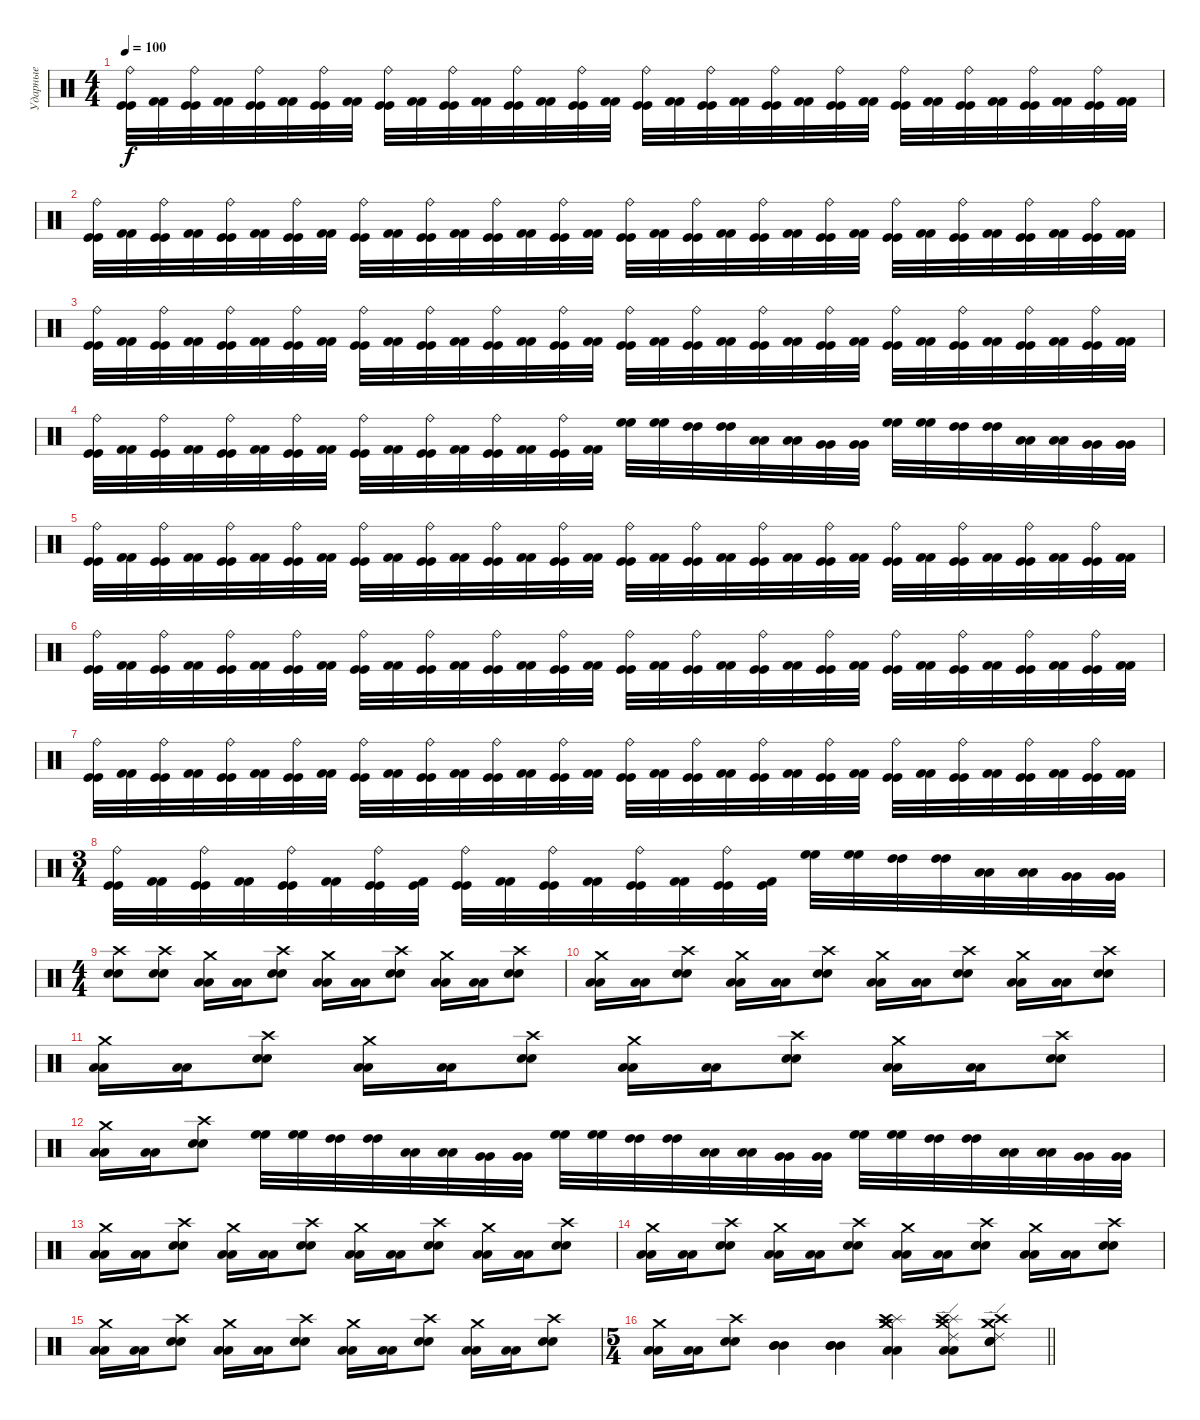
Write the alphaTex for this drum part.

\track ("Ударные" "Ударные") {instrument percussion}
\staff {score}
\articulation defaults
\ts (4 4)
\tempo 100
\clef neutral
\ks c
("Ride (bell)" "Kick (hit)" "Kick (hit)").32{dy f} ("Kick (hit) 2" "Kick (hit) 2").32 ("Ride (bell)" "Kick (hit)" "Kick (hit)").32 ("Kick (hit) 2" "Kick (hit) 2").32 ("Ride (bell)" "Kick (hit)" "Kick (hit)").32 ("Kick (hit) 2" "Kick (hit) 2").32 ("Ride (bell)" "Kick (hit)" "Kick (hit)").32 ("Kick (hit) 2" "Kick (hit) 2").32 ("Ride (bell)" "Kick (hit)" "Kick (hit)").32 ("Kick (hit) 2" "Kick (hit) 2").32 ("Ride (bell)" "Kick (hit)" "Kick (hit)").32 ("Kick (hit) 2" "Kick (hit) 2").32 ("Ride (bell)" "Kick (hit)" "Kick (hit)").32 ("Kick (hit) 2" "Kick (hit) 2").32 ("Ride (bell)" "Kick (hit)" "Kick (hit)").32 ("Kick (hit) 2" "Kick (hit) 2").32 ("Ride (bell)" "Kick (hit)" "Kick (hit)").32 ("Kick (hit) 2" "Kick (hit) 2").32 ("Ride (bell)" "Kick (hit)" "Kick (hit)").32 ("Kick (hit) 2" "Kick (hit) 2").32 ("Ride (bell)" "Kick (hit)" "Kick (hit)").32 ("Kick (hit) 2" "Kick (hit) 2").32 ("Ride (bell)" "Kick (hit)" "Kick (hit)").32 ("Kick (hit) 2" "Kick (hit) 2").32 ("Ride (bell)" "Kick (hit)" "Kick (hit)").32 ("Kick (hit) 2" "Kick (hit) 2").32 ("Ride (bell)" "Kick (hit)" "Kick (hit)").32 ("Kick (hit) 2" "Kick (hit) 2").32 ("Ride (bell)" "Kick (hit)" "Kick (hit)").32 ("Kick (hit) 2" "Kick (hit) 2").32 ("Ride (bell)" "Kick (hit)" "Kick (hit)").32 ("Kick (hit) 2" "Kick (hit) 2").32 |
("Ride (bell)" "Kick (hit)" "Kick (hit)").32 ("Kick (hit) 2" "Kick (hit) 2").32 ("Ride (bell)" "Kick (hit)" "Kick (hit)").32 ("Kick (hit) 2" "Kick (hit) 2").32 ("Ride (bell)" "Kick (hit)" "Kick (hit)").32 ("Kick (hit) 2" "Kick (hit) 2").32 ("Ride (bell)" "Kick (hit)" "Kick (hit)").32 ("Kick (hit) 2" "Kick (hit) 2").32 ("Ride (bell)" "Kick (hit)" "Kick (hit)").32 ("Kick (hit) 2" "Kick (hit) 2").32 ("Ride (bell)" "Kick (hit)" "Kick (hit)").32 ("Kick (hit) 2" "Kick (hit) 2").32 ("Ride (bell)" "Kick (hit)" "Kick (hit)").32 ("Kick (hit) 2" "Kick (hit) 2").32 ("Ride (bell)" "Kick (hit)" "Kick (hit)").32 ("Kick (hit) 2" "Kick (hit) 2").32 ("Ride (bell)" "Kick (hit)" "Kick (hit)").32 ("Kick (hit) 2" "Kick (hit) 2").32 ("Ride (bell)" "Kick (hit)" "Kick (hit)").32 ("Kick (hit) 2" "Kick (hit) 2").32 ("Ride (bell)" "Kick (hit)" "Kick (hit)").32 ("Kick (hit) 2" "Kick (hit) 2").32 ("Ride (bell)" "Kick (hit)" "Kick (hit)").32 ("Kick (hit) 2" "Kick (hit) 2").32 ("Ride (bell)" "Kick (hit)" "Kick (hit)").32 ("Kick (hit) 2" "Kick (hit) 2").32 ("Ride (bell)" "Kick (hit)" "Kick (hit)").32 ("Kick (hit) 2" "Kick (hit) 2").32 ("Ride (bell)" "Kick (hit)" "Kick (hit)").32 ("Kick (hit) 2" "Kick (hit) 2").32 ("Ride (bell)" "Kick (hit)" "Kick (hit)").32 ("Kick (hit) 2" "Kick (hit) 2").32 |
("Ride (bell)" "Kick (hit)" "Kick (hit)").32 ("Kick (hit) 2" "Kick (hit) 2").32 ("Ride (bell)" "Kick (hit)" "Kick (hit)").32 ("Kick (hit) 2" "Kick (hit) 2").32 ("Ride (bell)" "Kick (hit)" "Kick (hit)").32 ("Kick (hit) 2" "Kick (hit) 2").32 ("Ride (bell)" "Kick (hit)" "Kick (hit)").32 ("Kick (hit) 2" "Kick (hit) 2").32 ("Ride (bell)" "Kick (hit)" "Kick (hit)").32 ("Kick (hit) 2" "Kick (hit) 2").32 ("Ride (bell)" "Kick (hit)" "Kick (hit)").32 ("Kick (hit) 2" "Kick (hit) 2").32 ("Ride (bell)" "Kick (hit)" "Kick (hit)").32 ("Kick (hit) 2" "Kick (hit) 2").32 ("Ride (bell)" "Kick (hit)" "Kick (hit)").32 ("Kick (hit) 2" "Kick (hit) 2").32 ("Ride (bell)" "Kick (hit)" "Kick (hit)").32 ("Kick (hit) 2" "Kick (hit) 2").32 ("Ride (bell)" "Kick (hit)" "Kick (hit)").32 ("Kick (hit) 2" "Kick (hit) 2").32 ("Ride (bell)" "Kick (hit)" "Kick (hit)").32 ("Kick (hit) 2" "Kick (hit) 2").32 ("Ride (bell)" "Kick (hit)" "Kick (hit)").32 ("Kick (hit) 2" "Kick (hit) 2").32 ("Ride (bell)" "Kick (hit)" "Kick (hit)").32 ("Kick (hit) 2" "Kick (hit) 2").32 ("Ride (bell)" "Kick (hit)" "Kick (hit)").32 ("Kick (hit) 2" "Kick (hit) 2").32 ("Ride (bell)" "Kick (hit)" "Kick (hit)").32 ("Kick (hit) 2" "Kick (hit) 2").32 ("Ride (bell)" "Kick (hit)" "Kick (hit)").32 ("Kick (hit) 2" "Kick (hit) 2").32 |
("Ride (bell)" "Kick (hit)" "Kick (hit)").32 ("Kick (hit) 2" "Kick (hit) 2").32 ("Ride (bell)" "Kick (hit)" "Kick (hit)").32 ("Kick (hit) 2" "Kick (hit) 2").32 ("Ride (bell)" "Kick (hit)" "Kick (hit)").32 ("Kick (hit) 2" "Kick (hit) 2").32 ("Ride (bell)" "Kick (hit)" "Kick (hit)").32 ("Kick (hit) 2" "Kick (hit) 2").32 ("Ride (bell)" "Kick (hit)" "Kick (hit)").32 ("Kick (hit) 2" "Kick (hit) 2").32 ("Ride (bell)" "Kick (hit)" "Kick (hit)").32 ("Kick (hit) 2" "Kick (hit) 2").32 ("Ride (bell)" "Kick (hit)" "Kick (hit)").32 ("Kick (hit) 2" "Kick (hit) 2").32 ("Ride (bell)" "Kick (hit)" "Kick (hit)").32 ("Kick (hit) 2" "Kick (hit) 2").32 ("High Floor Tom (hit)" "High Floor Tom (hit)").32 ("High Floor Tom (hit)" "High Floor Tom (hit)").32 ("High Tom (hit)" "High Tom (hit)").32 ("High Tom (hit)" "High Tom (hit)").32 ("Low Tom (hit)" "Low Tom (hit)").32 ("Low Tom (hit)" "Low Tom (hit)").32 ("Very Low Tom (hit)" "Very Low Tom (hit)").32 ("Very Low Tom (hit)" "Very Low Tom (hit)").32 ("High Floor Tom (hit)" "High Floor Tom (hit)").32 ("High Floor Tom (hit)" "High Floor Tom (hit)").32 ("High Tom (hit)" "High Tom (hit)").32 ("High Tom (hit)" "High Tom (hit)").32 ("Low Tom (hit)" "Low Tom (hit)").32 ("Low Tom (hit)" "Low Tom (hit)").32 ("Very Low Tom (hit)" "Very Low Tom (hit)").32 ("Very Low Tom (hit)" "Very Low Tom (hit)").32 |
("Ride (bell)" "Kick (hit)" "Kick (hit)").32 ("Kick (hit) 2" "Kick (hit) 2").32 ("Ride (bell)" "Kick (hit)" "Kick (hit)").32 ("Kick (hit) 2" "Kick (hit) 2").32 ("Ride (bell)" "Kick (hit)" "Kick (hit)").32 ("Kick (hit) 2" "Kick (hit) 2").32 ("Ride (bell)" "Kick (hit)" "Kick (hit)").32 ("Kick (hit) 2" "Kick (hit) 2").32 ("Ride (bell)" "Kick (hit)" "Kick (hit)").32 ("Kick (hit) 2" "Kick (hit) 2").32 ("Ride (bell)" "Kick (hit)" "Kick (hit)").32 ("Kick (hit) 2" "Kick (hit) 2").32 ("Ride (bell)" "Kick (hit)" "Kick (hit)").32 ("Kick (hit) 2" "Kick (hit) 2").32 ("Ride (bell)" "Kick (hit)" "Kick (hit)").32 ("Kick (hit) 2" "Kick (hit) 2").32 ("Ride (bell)" "Kick (hit)" "Kick (hit)").32 ("Kick (hit) 2" "Kick (hit) 2").32 ("Ride (bell)" "Kick (hit)" "Kick (hit)").32 ("Kick (hit) 2" "Kick (hit) 2").32 ("Ride (bell)" "Kick (hit)" "Kick (hit)").32 ("Kick (hit) 2" "Kick (hit) 2").32 ("Ride (bell)" "Kick (hit)" "Kick (hit)").32 ("Kick (hit) 2" "Kick (hit) 2").32 ("Ride (bell)" "Kick (hit)" "Kick (hit)").32 ("Kick (hit) 2" "Kick (hit) 2").32 ("Ride (bell)" "Kick (hit)" "Kick (hit)").32 ("Kick (hit) 2" "Kick (hit) 2").32 ("Ride (bell)" "Kick (hit)" "Kick (hit)").32 ("Kick (hit) 2" "Kick (hit) 2").32 ("Ride (bell)" "Kick (hit)" "Kick (hit)").32 ("Kick (hit) 2" "Kick (hit) 2").32 |
("Ride (bell)" "Kick (hit)" "Kick (hit)").32 ("Kick (hit) 2" "Kick (hit) 2").32 ("Ride (bell)" "Kick (hit)" "Kick (hit)").32 ("Kick (hit) 2" "Kick (hit) 2").32 ("Ride (bell)" "Kick (hit)" "Kick (hit)").32 ("Kick (hit) 2" "Kick (hit) 2").32 ("Ride (bell)" "Kick (hit)" "Kick (hit)").32 ("Kick (hit) 2" "Kick (hit) 2").32 ("Ride (bell)" "Kick (hit)" "Kick (hit)").32 ("Kick (hit) 2" "Kick (hit) 2").32 ("Ride (bell)" "Kick (hit)" "Kick (hit)").32 ("Kick (hit) 2" "Kick (hit) 2").32 ("Ride (bell)" "Kick (hit)" "Kick (hit)").32 ("Kick (hit) 2" "Kick (hit) 2").32 ("Ride (bell)" "Kick (hit)" "Kick (hit)").32 ("Kick (hit) 2" "Kick (hit) 2").32 ("Ride (bell)" "Kick (hit)" "Kick (hit)").32 ("Kick (hit) 2" "Kick (hit) 2").32 ("Ride (bell)" "Kick (hit)" "Kick (hit)").32 ("Kick (hit) 2" "Kick (hit) 2").32 ("Ride (bell)" "Kick (hit)" "Kick (hit)").32 ("Kick (hit) 2" "Kick (hit) 2").32 ("Ride (bell)" "Kick (hit)" "Kick (hit)").32 ("Kick (hit) 2" "Kick (hit) 2").32 ("Ride (bell)" "Kick (hit)" "Kick (hit)").32 ("Kick (hit) 2" "Kick (hit) 2").32 ("Ride (bell)" "Kick (hit)" "Kick (hit)").32 ("Kick (hit) 2" "Kick (hit) 2").32 ("Ride (bell)" "Kick (hit)" "Kick (hit)").32 ("Kick (hit) 2" "Kick (hit) 2").32 ("Ride (bell)" "Kick (hit)" "Kick (hit)").32 ("Kick (hit) 2" "Kick (hit) 2").32 |
("Ride (bell)" "Kick (hit)" "Kick (hit)").32 ("Kick (hit) 2" "Kick (hit) 2").32 ("Ride (bell)" "Kick (hit)" "Kick (hit)").32 ("Kick (hit) 2" "Kick (hit) 2").32 ("Ride (bell)" "Kick (hit)" "Kick (hit)").32 ("Kick (hit) 2" "Kick (hit) 2").32 ("Ride (bell)" "Kick (hit)" "Kick (hit)").32 ("Kick (hit) 2" "Kick (hit) 2").32 ("Ride (bell)" "Kick (hit)" "Kick (hit)").32 ("Kick (hit) 2" "Kick (hit) 2").32 ("Ride (bell)" "Kick (hit)" "Kick (hit)").32 ("Kick (hit) 2" "Kick (hit) 2").32 ("Ride (bell)" "Kick (hit)" "Kick (hit)").32 ("Kick (hit) 2" "Kick (hit) 2").32 ("Ride (bell)" "Kick (hit)" "Kick (hit)").32 ("Kick (hit) 2" "Kick (hit) 2").32 ("Ride (bell)" "Kick (hit)" "Kick (hit)").32 ("Kick (hit) 2" "Kick (hit) 2").32 ("Ride (bell)" "Kick (hit)" "Kick (hit)").32 ("Kick (hit) 2" "Kick (hit) 2").32 ("Ride (bell)" "Kick (hit)" "Kick (hit)").32 ("Kick (hit) 2" "Kick (hit) 2").32 ("Ride (bell)" "Kick (hit)" "Kick (hit)").32 ("Kick (hit) 2" "Kick (hit) 2").32 ("Ride (bell)" "Kick (hit)" "Kick (hit)").32 ("Kick (hit) 2" "Kick (hit) 2").32 ("Ride (bell)" "Kick (hit)" "Kick (hit)").32 ("Kick (hit) 2" "Kick (hit) 2").32 ("Ride (bell)" "Kick (hit)" "Kick (hit)").32 ("Kick (hit) 2" "Kick (hit) 2").32 ("Ride (bell)" "Kick (hit)" "Kick (hit)").32 ("Kick (hit) 2" "Kick (hit) 2").32 |
\ts (3 4)
("Ride (bell)" "Kick (hit)" "Kick (hit)").32 ("Kick (hit) 2" "Kick (hit) 2").32 ("Ride (bell)" "Kick (hit)" "Kick (hit)").32 ("Kick (hit) 2" "Kick (hit) 2").32 ("Ride (bell)" "Kick (hit)" "Kick (hit)").32 ("Kick (hit) 2" "Kick (hit) 2").32 ("Ride (bell)" "Kick (hit)" "Kick (hit)").32 ("Kick (hit) 2" "Kick (hit)").32 ("Ride (bell)" "Kick (hit)" "Kick (hit)").32 ("Kick (hit) 2" "Kick (hit) 2").32 ("Ride (bell)" "Kick (hit)" "Kick (hit)").32 ("Kick (hit) 2" "Kick (hit) 2").32 ("Ride (bell)" "Kick (hit)" "Kick (hit)").32 ("Kick (hit) 2" "Kick (hit) 2").32 ("Ride (bell)" "Kick (hit)" "Kick (hit)").32 ("Kick (hit) 2" "Kick (hit)").32 ("High Floor Tom (hit)" "High Floor Tom (hit)").32 ("High Floor Tom (hit)" "High Floor Tom (hit)").32 ("High Tom (hit)" "High Tom (hit)").32 ("High Tom (hit)" "High Tom (hit)").32 ("Low Tom (hit)" "Low Tom (hit)").32 ("Low Tom (hit)" "Low Tom (hit)").32 ("Very Low Tom (hit)" "Very Low Tom (hit)").32 ("Very Low Tom (hit)" "Very Low Tom (hit)").32 |
\ts (4 4)
("Crash high (hit)" "Electric Snare (hit)" "Electric Snare (hit)").8 ("Crash high (hit)" "Electric Snare (hit)" "Electric Snare (hit)").8 ("Crash medium (hit)" "Low Tom (hit)" "Low Tom (hit)").16 ("Low Tom (hit)" "Low Tom (hit)").16 ("Crash high (hit)" "Electric Snare (hit)" "Electric Snare (hit)").8 ("Crash medium (hit)" "Low Tom (hit)" "Low Tom (hit)").16 ("Low Tom (hit)" "Low Tom (hit)").16 ("Crash high (hit)" "Electric Snare (hit)" "Electric Snare (hit)").8 ("Crash medium (hit)" "Low Tom (hit)" "Low Tom (hit)").16 ("Low Tom (hit)" "Low Tom (hit)").16 ("Crash high (hit)" "Electric Snare (hit)" "Electric Snare (hit)").8 |
("Crash medium (hit)" "Low Tom (hit)" "Low Tom (hit)").16 ("Low Tom (hit)" "Low Tom (hit)").16 ("Crash high (hit)" "Electric Snare (hit)" "Electric Snare (hit)").8 ("Crash medium (hit)" "Low Tom (hit)" "Low Tom (hit)").16 ("Low Tom (hit)" "Low Tom (hit)").16 ("Crash high (hit)" "Electric Snare (hit)" "Electric Snare (hit)").8 ("Crash medium (hit)" "Low Tom (hit)" "Low Tom (hit)").16 ("Low Tom (hit)" "Low Tom (hit)").16 ("Crash high (hit)" "Electric Snare (hit)" "Electric Snare (hit)").8 ("Crash medium (hit)" "Low Tom (hit)" "Low Tom (hit)").16 ("Low Tom (hit)" "Low Tom (hit)").16 ("Crash high (hit)" "Electric Snare (hit)" "Electric Snare (hit)").8 |
("Crash medium (hit)" "Low Tom (hit)" "Low Tom (hit)").16 ("Low Tom (hit)" "Low Tom (hit)").16 ("Crash high (hit)" "Electric Snare (hit)" "Electric Snare (hit)").8 ("Crash medium (hit)" "Low Tom (hit)" "Low Tom (hit)").16 ("Low Tom (hit)" "Low Tom (hit)").16 ("Crash high (hit)" "Electric Snare (hit)" "Electric Snare (hit)").8 ("Crash medium (hit)" "Low Tom (hit)" "Low Tom (hit)").16 ("Low Tom (hit)" "Low Tom (hit)").16 ("Crash high (hit)" "Electric Snare (hit)" "Electric Snare (hit)").8 ("Crash medium (hit)" "Low Tom (hit)" "Low Tom (hit)").16 ("Low Tom (hit)" "Low Tom (hit)").16 ("Crash high (hit)" "Electric Snare (hit)" "Electric Snare (hit)").8 |
("Crash medium (hit)" "Low Tom (hit)" "Low Tom (hit)").16 ("Low Tom (hit)" "Low Tom (hit)").16 ("Crash high (hit)" "Electric Snare (hit)" "Electric Snare (hit)").8 ("High Floor Tom (hit)" "High Floor Tom (hit)").32 ("High Floor Tom (hit)" "High Floor Tom (hit)").32 ("High Tom (hit)" "High Tom (hit)").32 ("High Tom (hit)" "High Tom (hit)").32 ("Low Tom (hit)" "Low Tom (hit)").32 ("Low Tom (hit)" "Low Tom (hit)").32 ("Very Low Tom (hit)" "Very Low Tom (hit)").32 ("Very Low Tom (hit)" "Very Low Tom (hit)").32 ("High Floor Tom (hit)" "High Floor Tom (hit)").32 ("High Floor Tom (hit)" "High Floor Tom (hit)").32 ("High Tom (hit)" "High Tom (hit)").32 ("High Tom (hit)" "High Tom (hit)").32 ("Low Tom (hit)" "Low Tom (hit)").32 ("Low Tom (hit)" "Low Tom (hit)").32 ("Very Low Tom (hit)" "Very Low Tom (hit)").32 ("Very Low Tom (hit)" "Very Low Tom (hit)").32 ("High Floor Tom (hit)" "High Floor Tom (hit)").32 ("High Floor Tom (hit)" "High Floor Tom (hit)").32 ("High Tom (hit)" "High Tom (hit)").32 ("High Tom (hit)" "High Tom (hit)").32 ("Low Tom (hit)" "Low Tom (hit)").32 ("Low Tom (hit)" "Low Tom (hit)").32 ("Very Low Tom (hit)" "Very Low Tom (hit)").32 ("Very Low Tom (hit)" "Very Low Tom (hit)").32 |
("Crash medium (hit)" "Low Tom (hit)" "Low Tom (hit)").16 ("Low Tom (hit)" "Low Tom (hit)").16 ("Crash high (hit)" "Electric Snare (hit)" "Electric Snare (hit)").8 ("Crash medium (hit)" "Low Tom (hit)" "Low Tom (hit)").16 ("Low Tom (hit)" "Low Tom (hit)").16 ("Crash high (hit)" "Electric Snare (hit)" "Electric Snare (hit)").8 ("Crash medium (hit)" "Low Tom (hit)" "Low Tom (hit)").16 ("Low Tom (hit)" "Low Tom (hit)").16 ("Crash high (hit)" "Electric Snare (hit)" "Electric Snare (hit)").8 ("Crash medium (hit)" "Low Tom (hit)" "Low Tom (hit)").16 ("Low Tom (hit)" "Low Tom (hit)").16 ("Crash high (hit)" "Electric Snare (hit)" "Electric Snare (hit)").8 |
("Crash medium (hit)" "Low Tom (hit)" "Low Tom (hit)").16 ("Low Tom (hit)" "Low Tom (hit)").16 ("Crash high (hit)" "Electric Snare (hit)" "Electric Snare (hit)").8 ("Crash medium (hit)" "Low Tom (hit)" "Low Tom (hit)").16 ("Low Tom (hit)" "Low Tom (hit)").16 ("Crash high (hit)" "Electric Snare (hit)" "Electric Snare (hit)").8 ("Crash medium (hit)" "Low Tom (hit)" "Low Tom (hit)").16 ("Low Tom (hit)" "Low Tom (hit)").16 ("Crash high (hit)" "Electric Snare (hit)" "Electric Snare (hit)").8 ("Crash medium (hit)" "Low Tom (hit)" "Low Tom (hit)").16 ("Low Tom (hit)" "Low Tom (hit)").16 ("Crash high (hit)" "Electric Snare (hit)" "Electric Snare (hit)").8 |
("Crash medium (hit)" "Low Tom (hit)" "Low Tom (hit)").16 ("Low Tom (hit)" "Low Tom (hit)").16 ("Crash high (hit)" "Electric Snare (hit)" "Electric Snare (hit)").8 ("Crash medium (hit)" "Low Tom (hit)" "Low Tom (hit)").16 ("Low Tom (hit)" "Low Tom (hit)").16 ("Crash high (hit)" "Electric Snare (hit)" "Electric Snare (hit)").8 ("Crash medium (hit)" "Low Tom (hit)" "Low Tom (hit)").16 ("Low Tom (hit)" "Low Tom (hit)").16 ("Crash high (hit)" "Electric Snare (hit)" "Electric Snare (hit)").8 ("Crash medium (hit)" "Low Tom (hit)" "Low Tom (hit)").16 ("Low Tom (hit)" "Low Tom (hit)").16 ("Crash high (hit)" "Electric Snare (hit)" "Electric Snare (hit)").8 |
\ts (5 4)
\barLineRight lightlight
("Crash medium (hit)" "Low Tom (hit)" "Low Tom (hit)").16 ("Low Tom (hit)" "Low Tom (hit)").16 ("Crash high (hit)" "Electric Snare (hit)" "Electric Snare (hit)").8 ("Mid Tom (hit)" "Mid Tom (hit)" "Mid Tom (hit)").4 ("Mid Tom (hit)" "Mid Tom (hit)" "Mid Tom (hit)").4 ("Splash (hit)" "Crash medium (hit)" "Low Tom (hit)" "Low Tom (hit)" "Crash medium (hit)" "Crash high (hit)").4 ("Splash (hit)" "Crash medium (hit)" "Low Tom (hit)" "Low Tom (hit)" "Crash high (hit)" "Ride (edge) 2").8 ("Ride (edge) 2" "Crash medium (hit)" "Electric Snare (hit)" "Electric Snare (hit)" "Crash high (hit)" "Crash medium (hit)").8
